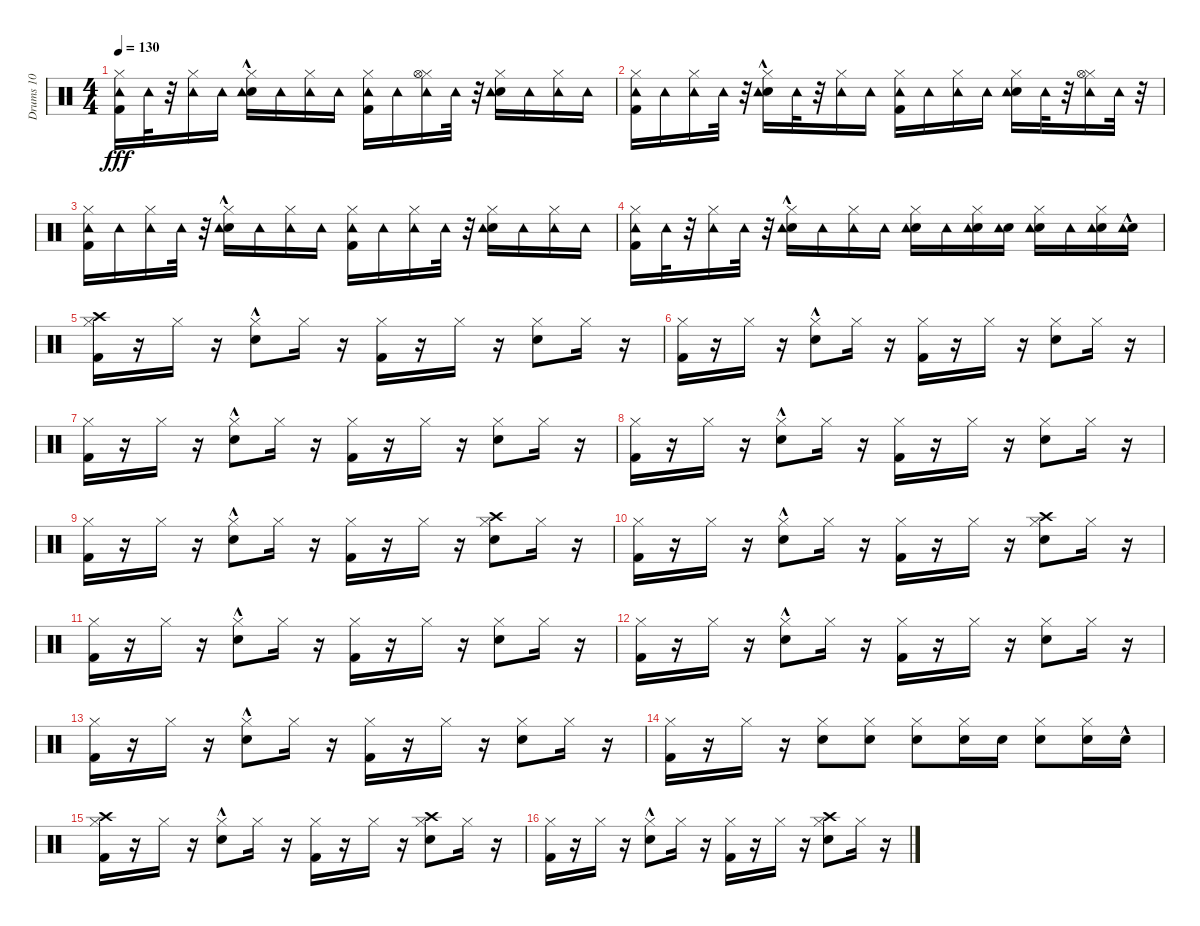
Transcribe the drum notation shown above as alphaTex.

\track ("Drums 10            " "Drums 10  ") {instrument percussion}
\staff {score}
\articulation defaults
\ts (4 4)
\tempo 130
\clef neutral
\ks c
("Kick (hit) 2" "Tambourine (hit)" "Hi-Hat (closed)").16{dy fff} "Tambourine (hit)".32 r.32 ("Tambourine (hit)" "Hi-Hat (closed)").16 "Tambourine (hit)".16 ("Snare (hit) 2"{hac} "Tambourine (hit)" "Hi-Hat (closed)").16 "Tambourine (hit)".16 ("Tambourine (hit)" "Hi-Hat (closed)").16 "Tambourine (hit)".16 ("Kick (hit) 2" "Tambourine (hit)" "Hi-Hat (closed)").16 "Tambourine (hit)".16 ("Tambourine (hit)" "Hi-Hat (closed)" "Hi-Hat (open)").16 "Tambourine (hit)".32 r.32 ("Snare (hit) 2" "Tambourine (hit)" "Hi-Hat (closed)").16 "Tambourine (hit)".16 ("Tambourine (hit)" "Hi-Hat (closed)").16 "Tambourine (hit)".16 |
("Kick (hit) 2" "Tambourine (hit)" "Hi-Hat (closed)").16 "Tambourine (hit)".16 ("Tambourine (hit)" "Hi-Hat (closed)").16 "Tambourine (hit)".32 r.32 ("Snare (hit) 2"{hac} "Tambourine (hit)" "Hi-Hat (closed)").16 "Tambourine (hit)".32 r.32 ("Tambourine (hit)" "Hi-Hat (closed)").16 "Tambourine (hit)".16 ("Kick (hit) 2" "Tambourine (hit)" "Hi-Hat (closed)").16 "Tambourine (hit)".16 ("Tambourine (hit)" "Hi-Hat (closed)").16 "Tambourine (hit)".16 ("Snare (hit) 2" "Tambourine (hit)" "Hi-Hat (closed)").16 "Tambourine (hit)".32 r.32 ("Tambourine (hit)" "Hi-Hat (closed)" "Hi-Hat (open)").16 "Tambourine (hit)".32 r.32 |
("Kick (hit) 2" "Tambourine (hit)" "Hi-Hat (closed)").16 "Tambourine (hit)".16 ("Tambourine (hit)" "Hi-Hat (closed)").16 "Tambourine (hit)".32 r.32 ("Snare (hit) 2"{hac} "Tambourine (hit)" "Hi-Hat (closed)").16 "Tambourine (hit)".16 ("Tambourine (hit)" "Hi-Hat (closed)").16 "Tambourine (hit)".16 ("Kick (hit) 2" "Tambourine (hit)" "Hi-Hat (closed)").16 "Tambourine (hit)".16 ("Tambourine (hit)" "Hi-Hat (closed)").16 "Tambourine (hit)".32 r.32 ("Snare (hit) 2" "Tambourine (hit)" "Hi-Hat (closed)").16 "Tambourine (hit)".16 ("Tambourine (hit)" "Hi-Hat (closed)").16 "Tambourine (hit)".16 |
("Kick (hit) 2" "Tambourine (hit)" "Hi-Hat (closed)").16 "Tambourine (hit)".32 r.32 ("Tambourine (hit)" "Hi-Hat (closed)").16 "Tambourine (hit)".32 r.32 ("Snare (hit) 2"{hac} "Tambourine (hit)" "Hi-Hat (closed)").16 "Tambourine (hit)".16 ("Tambourine (hit)" "Hi-Hat (closed)").16 "Tambourine (hit)".16 ("Snare (hit) 2" "Tambourine (hit)" "Hi-Hat (closed)").16 "Tambourine (hit)".16 ("Snare (hit) 2" "Tambourine (hit)" "Hi-Hat (closed)").16 ("Snare (hit) 2" "Tambourine (hit)").16 ("Snare (hit) 2" "Tambourine (hit)" "Hi-Hat (closed)").16 "Tambourine (hit)".16 ("Snare (hit) 2" "Tambourine (hit)" "Hi-Hat (closed)").16 ("Snare (hit) 2"{hac} "Tambourine (hit)").16 |
("Kick (hit) 2" "Hi-Hat (closed)" "Crash high (hit)").16 r.16 "Hi-Hat (closed)".16 r.16 ("Snare (hit) 2"{hac} "Hi-Hat (closed)").8 "Hi-Hat (closed)".16 r.16 ("Kick (hit) 2" "Hi-Hat (closed)").16 r.16 "Hi-Hat (closed)".16 r.16 ("Snare (hit) 2" "Hi-Hat (closed)").8 "Hi-Hat (closed)".16 r.16 |
("Kick (hit) 2" "Hi-Hat (closed)").16 r.16 "Hi-Hat (closed)".16 r.16 ("Snare (hit) 2"{hac} "Hi-Hat (closed)").8 "Hi-Hat (closed)".16 r.16 ("Kick (hit) 2" "Hi-Hat (closed)").16 r.16 "Hi-Hat (closed)".16 r.16 ("Snare (hit) 2" "Hi-Hat (closed)").8 "Hi-Hat (closed)".16 r.16 |
("Kick (hit) 2" "Hi-Hat (closed)").16 r.16 "Hi-Hat (closed)".16 r.16 ("Snare (hit) 2"{hac} "Hi-Hat (closed)").8 "Hi-Hat (closed)".16 r.16 ("Kick (hit) 2" "Hi-Hat (closed)").16 r.16 "Hi-Hat (closed)".16 r.16 ("Snare (hit) 2" "Hi-Hat (closed)").8 "Hi-Hat (closed)".16 r.16 |
("Kick (hit) 2" "Hi-Hat (closed)").16 r.16 "Hi-Hat (closed)".16 r.16 ("Snare (hit) 2"{hac} "Hi-Hat (closed)").8 "Hi-Hat (closed)".16 r.16 ("Kick (hit) 2" "Hi-Hat (closed)").16 r.16 "Hi-Hat (closed)".16 r.16 ("Snare (hit) 2" "Hi-Hat (closed)").8 "Hi-Hat (closed)".16 r.16 |
("Kick (hit) 2" "Hi-Hat (closed)").16 r.16 "Hi-Hat (closed)".16 r.16 ("Snare (hit) 2"{hac} "Hi-Hat (closed)").8 "Hi-Hat (closed)".16 r.16 ("Kick (hit) 2" "Hi-Hat (closed)").16 r.16 "Hi-Hat (closed)".16 r.16 ("Snare (hit) 2" "Hi-Hat (closed)" "Crash high (hit)").8 "Hi-Hat (closed)".16 r.16 |
("Kick (hit) 2" "Hi-Hat (closed)").16 r.16 "Hi-Hat (closed)".16 r.16 ("Snare (hit) 2"{hac} "Hi-Hat (closed)").8 "Hi-Hat (closed)".16 r.16 ("Kick (hit) 2" "Hi-Hat (closed)").16 r.16 "Hi-Hat (closed)".16 r.16 ("Snare (hit) 2" "Hi-Hat (closed)" "Crash high (hit)").8 "Hi-Hat (closed)".16 r.16 |
("Kick (hit) 2" "Hi-Hat (closed)").16 r.16 "Hi-Hat (closed)".16 r.16 ("Snare (hit) 2"{hac} "Hi-Hat (closed)").8 "Hi-Hat (closed)".16 r.16 ("Kick (hit) 2" "Hi-Hat (closed)").16 r.16 "Hi-Hat (closed)".16 r.16 ("Snare (hit) 2" "Hi-Hat (closed)").8 "Hi-Hat (closed)".16 r.16 |
("Kick (hit) 2" "Hi-Hat (closed)").16 r.16 "Hi-Hat (closed)".16 r.16 ("Snare (hit) 2"{hac} "Hi-Hat (closed)").8 "Hi-Hat (closed)".16 r.16 ("Kick (hit) 2" "Hi-Hat (closed)").16 r.16 "Hi-Hat (closed)".16 r.16 ("Snare (hit) 2" "Hi-Hat (closed)").8 "Hi-Hat (closed)".16 r.16 |
("Kick (hit) 2" "Hi-Hat (closed)").16 r.16 "Hi-Hat (closed)".16 r.16 ("Snare (hit) 2"{hac} "Hi-Hat (closed)").8 "Hi-Hat (closed)".16 r.16 ("Kick (hit) 2" "Hi-Hat (closed)").16 r.16 "Hi-Hat (closed)".16 r.16 ("Snare (hit) 2" "Hi-Hat (closed)").8 "Hi-Hat (closed)".16 r.16 |
("Kick (hit) 2" "Hi-Hat (closed)").16 r.16 "Hi-Hat (closed)".16 r.16 ("Snare (hit) 2" "Hi-Hat (closed)").8 ("Snare (hit) 2" "Hi-Hat (closed)").8 ("Snare (hit) 2" "Hi-Hat (closed)").8 ("Snare (hit) 2" "Hi-Hat (closed)").16 "Snare (hit) 2".16 ("Snare (hit) 2" "Hi-Hat (closed)").8 ("Snare (hit) 2" "Hi-Hat (closed)").16 "Snare (hit) 2"{hac}.16 |
("Kick (hit) 2" "Hi-Hat (closed)" "Crash high (hit)").16 r.16 "Hi-Hat (closed)".16 r.16 ("Snare (hit) 2"{hac} "Hi-Hat (closed)").8 "Hi-Hat (closed)".16 r.16 ("Kick (hit) 2" "Hi-Hat (closed)").16 r.16 "Hi-Hat (closed)".16 r.16 ("Snare (hit) 2" "Hi-Hat (closed)" "Crash high (hit)").8 "Hi-Hat (closed)".16 r.16 |
("Kick (hit) 2" "Hi-Hat (closed)").16 r.16 "Hi-Hat (closed)".16 r.16 ("Snare (hit) 2"{hac} "Hi-Hat (closed)").8 "Hi-Hat (closed)".16 r.16 ("Kick (hit) 2" "Hi-Hat (closed)").16 r.16 "Hi-Hat (closed)".16 r.16 ("Snare (hit) 2" "Hi-Hat (closed)" "Crash high (hit)").8 "Hi-Hat (closed)".16 r.16
